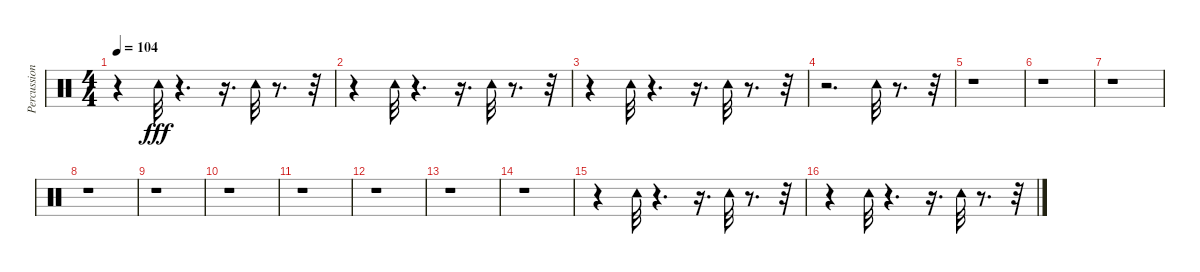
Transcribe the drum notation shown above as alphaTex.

\track ("Percussion" "Percussion") {instrument percussion}
\staff {score}
\articulation defaults
\ts (4 4)
\tempo 104
\clef neutral
\ks c
r.4{dy fff} "Tambourine (hit)".32 r.4{d} r.16{d} "Tambourine (hit)".32 r.8{d} r.32 |
r.4 "Tambourine (hit)".32 r.4{d} r.16{d} "Tambourine (hit)".32 r.8{d} r.32 |
r.4 "Tambourine (hit)".32 r.4{d} r.16{d} "Tambourine (hit)".32 r.8{d} r.32 |
r.2{d} "Tambourine (hit)".32 r.8{d} r.32 |
r.1 |
r.1 |
r.1 |
r.1 |
r.1 |
r.1 |
r.1 |
r.1 |
r.1 |
r.1 |
r.4 "Tambourine (hit)".32 r.4{d} r.16{d} "Tambourine (hit)".32 r.8{d} r.32 |
r.4 "Tambourine (hit)".32 r.4{d} r.16{d} "Tambourine (hit)".32 r.8{d} r.32
